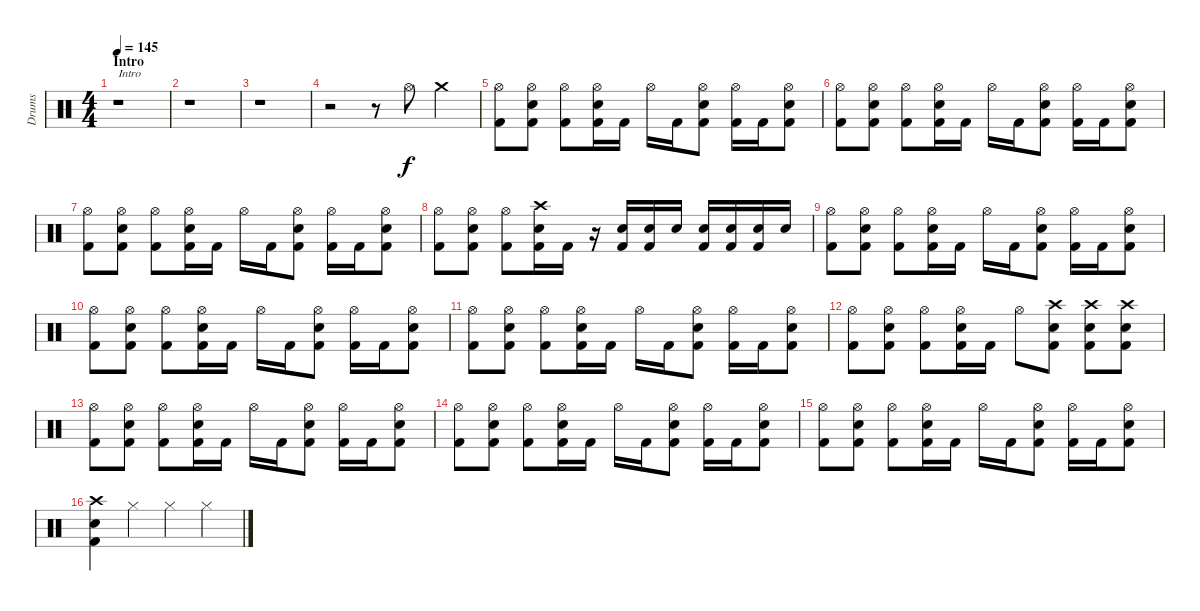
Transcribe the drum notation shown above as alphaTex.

\track ("Drums" "Drums") {instrument percussion}
\staff {score}
\articulation defaults
\ts (4 4)
\section ("" "Intro")
\tempo 145
\clef neutral
\ks c
r.1{txt "Intro" dy f} |
r.1 |
r.1 |
r.2 r.8 "Hi-Hat (open)".8 "Crash medium (hit)".4 |
("Hi-Hat (open)" "Kick (hit) 2").8 ("Hi-Hat (open)" "Electric Snare (hit)" "Kick (hit) 2").8 ("Hi-Hat (open)" "Kick (hit) 2").8 ("Hi-Hat (open)" "Electric Snare (hit)" "Kick (hit) 2").16 "Kick (hit) 2".16 "Hi-Hat (open)".16 "Kick (hit) 2".16 ("Hi-Hat (open)" "Electric Snare (hit)" "Kick (hit) 2").8 ("Hi-Hat (open)" "Kick (hit) 2").16 "Kick (hit) 2".16 ("Hi-Hat (open)" "Electric Snare (hit)" "Kick (hit) 2").8 |
("Hi-Hat (open)" "Kick (hit) 2").8 ("Hi-Hat (open)" "Electric Snare (hit)" "Kick (hit) 2").8 ("Hi-Hat (open)" "Kick (hit) 2").8 ("Hi-Hat (open)" "Electric Snare (hit)" "Kick (hit) 2").16 "Kick (hit) 2".16 "Hi-Hat (open)".16 "Kick (hit) 2".16 ("Hi-Hat (open)" "Electric Snare (hit)" "Kick (hit) 2").8 ("Hi-Hat (open)" "Kick (hit) 2").16 "Kick (hit) 2".16 ("Hi-Hat (open)" "Electric Snare (hit)" "Kick (hit) 2").8 |
("Hi-Hat (open)" "Kick (hit) 2").8 ("Hi-Hat (open)" "Electric Snare (hit)" "Kick (hit) 2").8 ("Hi-Hat (open)" "Kick (hit) 2").8 ("Hi-Hat (open)" "Electric Snare (hit)" "Kick (hit) 2").16 "Kick (hit) 2".16 "Hi-Hat (open)".16 "Kick (hit) 2".16 ("Hi-Hat (open)" "Electric Snare (hit)" "Kick (hit) 2").8 ("Hi-Hat (open)" "Kick (hit) 2").16 "Kick (hit) 2".16 ("Hi-Hat (open)" "Electric Snare (hit)" "Kick (hit) 2").8 |
("Hi-Hat (open)" "Kick (hit) 2").8 ("Hi-Hat (open)" "Electric Snare (hit)" "Kick (hit) 2").8 ("Hi-Hat (open)" "Kick (hit) 2").8 ("Crash high (hit)" "Electric Snare (hit)" "Kick (hit) 2").16 "Kick (hit) 2".16 r.16 ("Electric Snare (hit)" "Kick (hit) 2").16 ("Electric Snare (hit)" "Kick (hit) 2").16 "Electric Snare (hit)".16 ("Electric Snare (hit)" "Kick (hit) 2").16 ("Electric Snare (hit)" "Kick (hit) 2").16 ("Electric Snare (hit)" "Kick (hit) 2").16 "Electric Snare (hit)".16 |
("Hi-Hat (open)" "Kick (hit) 2").8 ("Hi-Hat (open)" "Electric Snare (hit)" "Kick (hit) 2").8 ("Hi-Hat (open)" "Kick (hit) 2").8 ("Hi-Hat (open)" "Electric Snare (hit)" "Kick (hit) 2").16 "Kick (hit) 2".16 "Hi-Hat (open)".16 "Kick (hit) 2".16 ("Hi-Hat (open)" "Electric Snare (hit)" "Kick (hit) 2").8 ("Hi-Hat (open)" "Kick (hit) 2").16 "Kick (hit) 2".16 ("Hi-Hat (open)" "Electric Snare (hit)" "Kick (hit) 2").8 |
("Hi-Hat (open)" "Kick (hit) 2").8 ("Hi-Hat (open)" "Electric Snare (hit)" "Kick (hit) 2").8 ("Hi-Hat (open)" "Kick (hit) 2").8 ("Hi-Hat (open)" "Electric Snare (hit)" "Kick (hit) 2").16 "Kick (hit) 2".16 "Hi-Hat (open)".16 "Kick (hit) 2".16 ("Hi-Hat (open)" "Electric Snare (hit)" "Kick (hit) 2").8 ("Hi-Hat (open)" "Kick (hit) 2").16 "Kick (hit) 2".16 ("Hi-Hat (open)" "Electric Snare (hit)" "Kick (hit) 2").8 |
("Hi-Hat (open)" "Kick (hit) 2").8 ("Hi-Hat (open)" "Electric Snare (hit)" "Kick (hit) 2").8 ("Hi-Hat (open)" "Kick (hit) 2").8 ("Hi-Hat (open)" "Electric Snare (hit)" "Kick (hit) 2").16 "Kick (hit) 2".16 "Hi-Hat (open)".16 "Kick (hit) 2".16 ("Hi-Hat (open)" "Electric Snare (hit)" "Kick (hit) 2").8 ("Hi-Hat (open)" "Kick (hit) 2").16 "Kick (hit) 2".16 ("Hi-Hat (open)" "Electric Snare (hit)" "Kick (hit) 2").8 |
("Hi-Hat (open)" "Kick (hit) 2").8 ("Hi-Hat (open)" "Electric Snare (hit)" "Kick (hit) 2").8 ("Hi-Hat (open)" "Kick (hit) 2").8 ("Hi-Hat (open)" "Electric Snare (hit)" "Kick (hit) 2").16 "Kick (hit) 2".16 "Hi-Hat (open)".8 ("Crash high (hit)" "Electric Snare (hit)" "Kick (hit) 2").8 ("Crash high (hit)" "Electric Snare (hit)" "Kick (hit) 2").8 ("Crash high (hit)" "Electric Snare (hit)" "Kick (hit) 2").8 |
("Hi-Hat (open)" "Kick (hit) 2").8 ("Hi-Hat (open)" "Electric Snare (hit)" "Kick (hit) 2").8 ("Hi-Hat (open)" "Kick (hit) 2").8 ("Hi-Hat (open)" "Electric Snare (hit)" "Kick (hit) 2").16 "Kick (hit) 2".16 "Hi-Hat (open)".16 "Kick (hit) 2".16 ("Hi-Hat (open)" "Electric Snare (hit)" "Kick (hit) 2").8 ("Hi-Hat (open)" "Kick (hit) 2").16 "Kick (hit) 2".16 ("Hi-Hat (open)" "Electric Snare (hit)" "Kick (hit) 2").8 |
("Hi-Hat (open)" "Kick (hit) 2").8 ("Hi-Hat (open)" "Electric Snare (hit)" "Kick (hit) 2").8 ("Hi-Hat (open)" "Kick (hit) 2").8 ("Hi-Hat (open)" "Electric Snare (hit)" "Kick (hit) 2").16 "Kick (hit) 2".16 "Hi-Hat (open)".16 "Kick (hit) 2".16 ("Hi-Hat (open)" "Electric Snare (hit)" "Kick (hit) 2").8 ("Hi-Hat (open)" "Kick (hit) 2").16 "Kick (hit) 2".16 ("Hi-Hat (open)" "Electric Snare (hit)" "Kick (hit) 2").8 |
("Hi-Hat (open)" "Kick (hit) 2").8 ("Hi-Hat (open)" "Electric Snare (hit)" "Kick (hit) 2").8 ("Hi-Hat (open)" "Kick (hit) 2").8 ("Hi-Hat (open)" "Electric Snare (hit)" "Kick (hit) 2").16 "Kick (hit) 2".16 "Hi-Hat (open)".16 "Kick (hit) 2".16 ("Hi-Hat (open)" "Electric Snare (hit)" "Kick (hit) 2").8 ("Hi-Hat (open)" "Kick (hit) 2").16 "Kick (hit) 2".16 ("Hi-Hat (open)" "Electric Snare (hit)" "Kick (hit) 2").8 |
("Crash high (hit)" "Electric Snare (hit)" "Kick (hit) 2").4 "Hi-Hat (closed)".4 "Hi-Hat (closed)".4 "Hi-Hat (closed)".4
